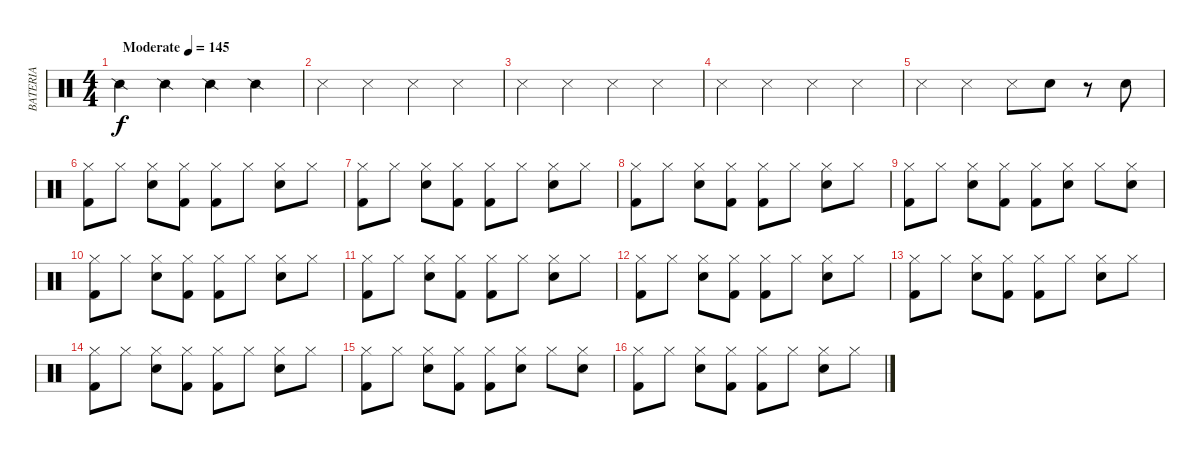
\track ("BATERIA" "BATERIA") {instrument percussion}
\staff {score}
\articulation defaults
\ts (4 4)
\tempo (145 "Moderate")
\clef neutral
\ks c "Snare (side stick) 2".4{dy f} "Snare (side stick) 2".4 "Snare (side stick) 2".4 "Snare (side stick) 2".4
|
"Metronome (hit)".4 "Metronome (hit)".4 "Metronome (hit)".4 "Metronome (hit)".4 |
"Metronome (hit)".4 "Metronome (hit)".4 "Metronome (hit)".4 "Metronome (hit)".4 |
"Metronome (hit)".4 "Metronome (hit)".4 "Metronome (hit)".4 "Metronome (hit)".4 |
"Metronome (hit)".4 "Metronome (hit)".4 "Metronome (hit)".8 "Snare (hit) 2".8 r.8 "Snare (hit) 2".8 |
("Kick (hit) 2" "Hi-Hat (closed)").8 "Hi-Hat (closed)".8 ("Snare (hit) 2" "Hi-Hat (closed)").8 ("Kick (hit) 2" "Hi-Hat (closed)").8 ("Kick (hit) 2" "Hi-Hat (closed)").8 "Hi-Hat (closed)".8 ("Snare (hit) 2" "Hi-Hat (closed)").8 "Hi-Hat (closed)".8 |
("Kick (hit) 2" "Hi-Hat (closed)").8 "Hi-Hat (closed)".8 ("Snare (hit) 2" "Hi-Hat (closed)").8 ("Kick (hit) 2" "Hi-Hat (closed)").8 ("Kick (hit) 2" "Hi-Hat (closed)").8 "Hi-Hat (closed)".8 ("Snare (hit) 2" "Hi-Hat (closed)").8 "Hi-Hat (closed)".8 |
("Kick (hit) 2" "Hi-Hat (closed)").8 "Hi-Hat (closed)".8 ("Snare (hit) 2" "Hi-Hat (closed)").8 ("Kick (hit) 2" "Hi-Hat (closed)").8 ("Kick (hit) 2" "Hi-Hat (closed)").8 "Hi-Hat (closed)".8 ("Snare (hit) 2" "Hi-Hat (closed)").8 "Hi-Hat (closed)".8 |
("Kick (hit) 2" "Hi-Hat (closed)").8 "Hi-Hat (closed)".8 ("Snare (hit) 2" "Hi-Hat (closed)").8 ("Kick (hit) 2" "Hi-Hat (closed)").8 ("Kick (hit) 2" "Hi-Hat (closed)").8 ("Snare (hit) 2" "Hi-Hat (closed)").8 "Hi-Hat (closed)".8 ("Snare (hit) 2" "Hi-Hat (closed)").8 |
("Kick (hit) 2" "Hi-Hat (closed)").8 "Hi-Hat (closed)".8 ("Snare (hit) 2" "Hi-Hat (closed)").8 ("Kick (hit) 2" "Hi-Hat (closed)").8 ("Kick (hit) 2" "Hi-Hat (closed)").8 "Hi-Hat (closed)".8 ("Snare (hit) 2" "Hi-Hat (closed)").8 "Hi-Hat (closed)".8 |
("Kick (hit) 2" "Hi-Hat (closed)").8 "Hi-Hat (closed)".8 ("Snare (hit) 2" "Hi-Hat (closed)").8 ("Kick (hit) 2" "Hi-Hat (closed)").8 ("Kick (hit) 2" "Hi-Hat (closed)").8 "Hi-Hat (closed)".8 ("Snare (hit) 2" "Hi-Hat (closed)").8 "Hi-Hat (closed)".8 |
("Kick (hit) 2" "Hi-Hat (closed)").8 "Hi-Hat (closed)".8 ("Snare (hit) 2" "Hi-Hat (closed)").8 ("Kick (hit) 2" "Hi-Hat (closed)").8 ("Kick (hit) 2" "Hi-Hat (closed)").8 "Hi-Hat (closed)".8 ("Snare (hit) 2" "Hi-Hat (closed)").8 "Hi-Hat (closed)".8 |
("Kick (hit) 2" "Hi-Hat (closed)").8 "Hi-Hat (closed)".8 ("Snare (hit) 2" "Hi-Hat (closed)").8 ("Kick (hit) 2" "Hi-Hat (closed)").8 ("Kick (hit) 2" "Hi-Hat (closed)").8 "Hi-Hat (closed)".8 ("Snare (hit) 2" "Hi-Hat (closed)").8 "Hi-Hat (closed)".8 |
("Kick (hit) 2" "Hi-Hat (closed)").8 "Hi-Hat (closed)".8 ("Snare (hit) 2" "Hi-Hat (closed)").8 ("Kick (hit) 2" "Hi-Hat (closed)").8 ("Kick (hit) 2" "Hi-Hat (closed)").8 "Hi-Hat (closed)".8 ("Snare (hit) 2" "Hi-Hat (closed)").8 "Hi-Hat (closed)".8 |
("Kick (hit) 2" "Hi-Hat (closed)").8 "Hi-Hat (closed)".8 ("Snare (hit) 2" "Hi-Hat (closed)").8 ("Kick (hit) 2" "Hi-Hat (closed)").8 ("Kick (hit) 2" "Hi-Hat (closed)").8 ("Snare (hit) 2" "Hi-Hat (closed)").8 "Hi-Hat (closed)".8 ("Snare (hit) 2" "Hi-Hat (closed)").8 |
("Kick (hit) 2" "Hi-Hat (closed)").8 "Hi-Hat (closed)".8 ("Snare (hit) 2" "Hi-Hat (closed)").8 ("Kick (hit) 2" "Hi-Hat (closed)").8 ("Kick (hit) 2" "Hi-Hat (closed)").8 "Hi-Hat (closed)".8 ("Snare (hit) 2" "Hi-Hat (closed)").8 "Hi-Hat (closed)".8
